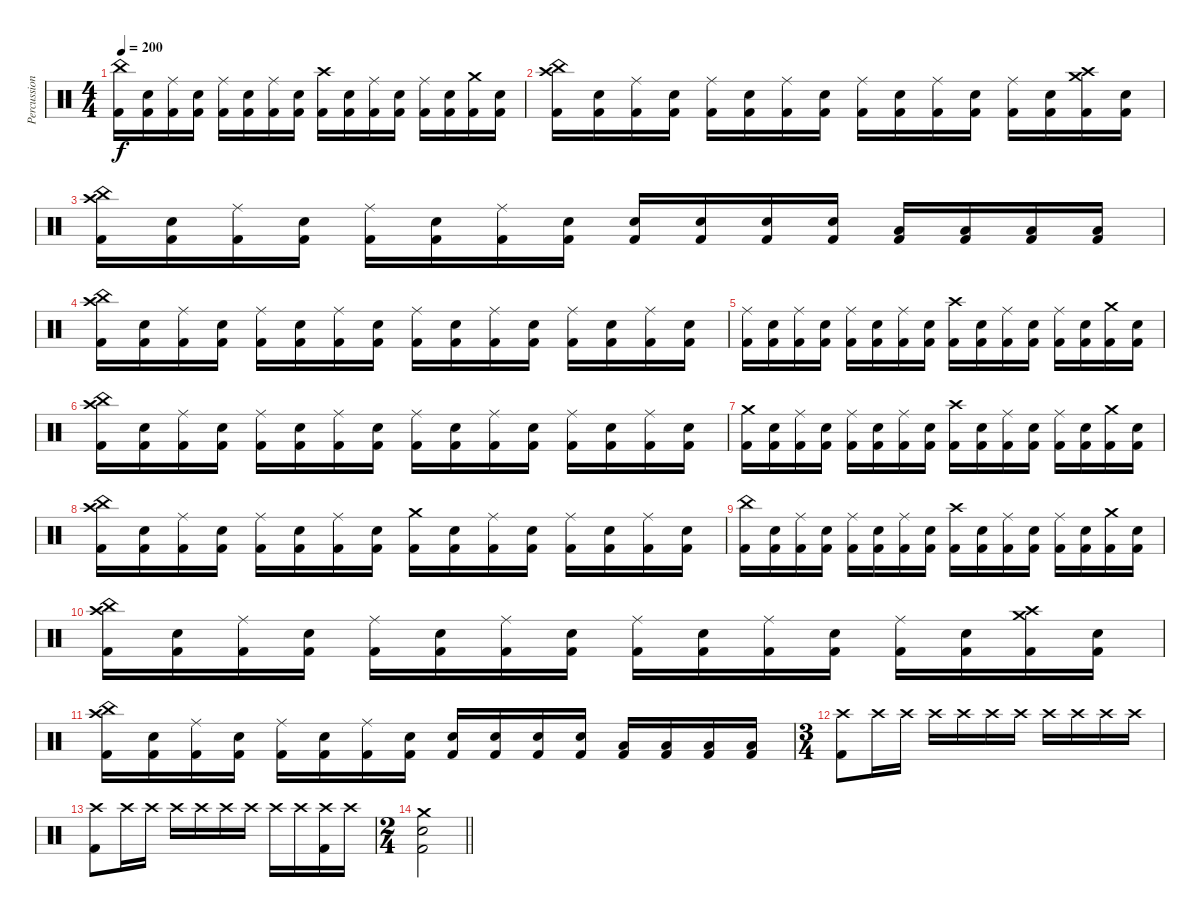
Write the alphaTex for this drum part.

\track ("Percussion" "Percussion") {instrument percussion}
\staff
\articulation defaults
\ts (4 4)
\tempo 200
\clef neutral
\ks c
("China (hit)" "Kick (hit) 2").16{dy f} ("Electric Snare (hit)" "Kick (hit) 2").16 ("Ride (middle)" "Kick (hit) 2").16 ("Electric Snare (hit)" "Kick (hit) 2").16 ("Ride (middle)" "Kick (hit) 2").16 ("Electric Snare (hit)" "Kick (hit) 2").16 ("Ride (middle)" "Kick (hit) 2").16 ("Electric Snare (hit)" "Kick (hit) 2").16 ("Crash high (hit)" "Kick (hit) 2").16 ("Electric Snare (hit)" "Kick (hit) 2").16 ("Ride (middle)" "Kick (hit) 2").16 ("Electric Snare (hit)" "Kick (hit) 2").16 ("Ride (middle)" "Kick (hit) 2").16 ("Electric Snare (hit)" "Kick (hit) 2").16 ("Crash medium (hit)" "Kick (hit) 2").16 ("Electric Snare (hit)" "Kick (hit) 2").16 |
("China (hit)" "Crash high (hit)" "Kick (hit) 2").16 ("Electric Snare (hit)" "Kick (hit) 2").16 ("Ride (middle)" "Kick (hit) 2").16 ("Electric Snare (hit)" "Kick (hit) 2").16 ("Ride (middle)" "Kick (hit) 2").16 ("Electric Snare (hit)" "Kick (hit) 2").16 ("Ride (middle)" "Kick (hit) 2").16 ("Electric Snare (hit)" "Kick (hit) 2").16 ("Ride (middle)" "Kick (hit) 2").16 ("Electric Snare (hit)" "Kick (hit) 2").16 ("Ride (middle)" "Kick (hit) 2").16 ("Electric Snare (hit)" "Kick (hit) 2").16 ("Ride (middle)" "Kick (hit) 2").16 ("Electric Snare (hit)" "Kick (hit) 2").16 ("Crash medium (hit)" "Crash high (hit)" "Kick (hit) 2").16 ("Electric Snare (hit)" "Kick (hit) 2").16 |
("China (hit)" "Crash high (hit)" "Kick (hit) 2").16 ("Electric Snare (hit)" "Kick (hit) 2").16 ("Ride (middle)" "Kick (hit) 2").16 ("Electric Snare (hit)" "Kick (hit) 2").16 ("Ride (middle)" "Kick (hit) 2").16 ("Electric Snare (hit)" "Kick (hit) 2").16 ("Ride (middle)" "Kick (hit) 2").16 ("Electric Snare (hit)" "Kick (hit) 2").16 ("Electric Snare (hit)" "Kick (hit) 2").16 ("Electric Snare (hit)" "Kick (hit) 2").16 ("Electric Snare (hit)" "Kick (hit) 2").16 ("Electric Snare (hit)" "Kick (hit) 2").16 ("Low Tom (hit)" "Kick (hit) 2").16 ("Low Tom (hit)" "Kick (hit) 2").16 ("Low Tom (hit)" "Kick (hit) 2").16 ("Low Tom (hit)" "Kick (hit) 2").16 |
("China (hit)" "Crash high (hit)" "Kick (hit) 2").16 ("Electric Snare (hit)" "Kick (hit) 2").16 ("Ride (middle)" "Kick (hit) 2").16 ("Electric Snare (hit)" "Kick (hit) 2").16 ("Ride (middle)" "Kick (hit) 2").16 ("Electric Snare (hit)" "Kick (hit) 2").16 ("Ride (middle)" "Kick (hit) 2").16 ("Electric Snare (hit)" "Kick (hit) 2").16 ("Ride (middle)" "Kick (hit) 2").16 ("Electric Snare (hit)" "Kick (hit) 2").16 ("Ride (middle)" "Kick (hit) 2").16 ("Electric Snare (hit)" "Kick (hit) 2").16 ("Ride (middle)" "Kick (hit) 2").16 ("Electric Snare (hit)" "Kick (hit) 2").16 ("Ride (middle)" "Kick (hit) 2").16 ("Electric Snare (hit)" "Kick (hit) 2").16 |
("Ride (middle)" "Kick (hit) 2").16 ("Electric Snare (hit)" "Kick (hit) 2").16 ("Ride (middle)" "Kick (hit) 2").16 ("Electric Snare (hit)" "Kick (hit) 2").16 ("Ride (middle)" "Kick (hit) 2").16 ("Electric Snare (hit)" "Kick (hit) 2").16 ("Ride (middle)" "Kick (hit) 2").16 ("Electric Snare (hit)" "Kick (hit) 2").16 ("Crash high (hit)" "Kick (hit) 2").16 ("Electric Snare (hit)" "Kick (hit) 2").16 ("Ride (middle)" "Kick (hit) 2").16 ("Electric Snare (hit)" "Kick (hit) 2").16 ("Ride (middle)" "Kick (hit) 2").16 ("Electric Snare (hit)" "Kick (hit) 2").16 ("Crash medium (hit)" "Kick (hit) 2").16 ("Electric Snare (hit)" "Kick (hit) 2").16 |
("China (hit)" "Crash high (hit)" "Kick (hit) 2").16 ("Electric Snare (hit)" "Kick (hit) 2").16 ("Ride (middle)" "Kick (hit) 2").16 ("Electric Snare (hit)" "Kick (hit) 2").16 ("Ride (middle)" "Kick (hit) 2").16 ("Electric Snare (hit)" "Kick (hit) 2").16 ("Ride (middle)" "Kick (hit) 2").16 ("Electric Snare (hit)" "Kick (hit) 2").16 ("Ride (middle)" "Kick (hit) 2").16 ("Electric Snare (hit)" "Kick (hit) 2").16 ("Ride (middle)" "Kick (hit) 2").16 ("Electric Snare (hit)" "Kick (hit) 2").16 ("Ride (middle)" "Kick (hit) 2").16 ("Electric Snare (hit)" "Kick (hit) 2").16 ("Ride (middle)" "Kick (hit) 2").16 ("Electric Snare (hit)" "Kick (hit) 2").16 |
("Crash medium (hit)" "Kick (hit) 2").16 ("Electric Snare (hit)" "Kick (hit) 2").16 ("Ride (middle)" "Kick (hit) 2").16 ("Electric Snare (hit)" "Kick (hit) 2").16 ("Ride (middle)" "Kick (hit) 2").16 ("Electric Snare (hit)" "Kick (hit) 2").16 ("Ride (middle)" "Kick (hit) 2").16 ("Electric Snare (hit)" "Kick (hit) 2").16 ("Crash high (hit)" "Kick (hit) 2").16 ("Electric Snare (hit)" "Kick (hit) 2").16 ("Ride (middle)" "Kick (hit) 2").16 ("Electric Snare (hit)" "Kick (hit) 2").16 ("Ride (middle)" "Kick (hit) 2").16 ("Electric Snare (hit)" "Kick (hit) 2").16 ("Crash medium (hit)" "Kick (hit) 2").16 ("Electric Snare (hit)" "Kick (hit) 2").16 |
("China (hit)" "Crash high (hit)" "Kick (hit) 2").16 ("Electric Snare (hit)" "Kick (hit) 2").16 ("Ride (middle)" "Kick (hit) 2").16 ("Electric Snare (hit)" "Kick (hit) 2").16 ("Ride (middle)" "Kick (hit) 2").16 ("Electric Snare (hit)" "Kick (hit) 2").16 ("Ride (middle)" "Kick (hit) 2").16 ("Electric Snare (hit)" "Kick (hit) 2").16 ("Crash medium (hit)" "Kick (hit) 2").16 ("Electric Snare (hit)" "Kick (hit) 2").16 ("Ride (middle)" "Kick (hit) 2").16 ("Electric Snare (hit)" "Kick (hit) 2").16 ("Ride (middle)" "Kick (hit) 2").16 ("Electric Snare (hit)" "Kick (hit) 2").16 ("Ride (middle)" "Kick (hit) 2").16 ("Electric Snare (hit)" "Kick (hit) 2").16 |
("China (hit)" "Kick (hit) 2").16 ("Electric Snare (hit)" "Kick (hit) 2").16 ("Ride (middle)" "Kick (hit) 2").16 ("Electric Snare (hit)" "Kick (hit) 2").16 ("Ride (middle)" "Kick (hit) 2").16 ("Electric Snare (hit)" "Kick (hit) 2").16 ("Ride (middle)" "Kick (hit) 2").16 ("Electric Snare (hit)" "Kick (hit) 2").16 ("Crash high (hit)" "Kick (hit) 2").16 ("Electric Snare (hit)" "Kick (hit) 2").16 ("Ride (middle)" "Kick (hit) 2").16 ("Electric Snare (hit)" "Kick (hit) 2").16 ("Ride (middle)" "Kick (hit) 2").16 ("Electric Snare (hit)" "Kick (hit) 2").16 ("Crash medium (hit)" "Kick (hit) 2").16 ("Electric Snare (hit)" "Kick (hit) 2").16 |
("China (hit)" "Crash high (hit)" "Kick (hit) 2").16 ("Electric Snare (hit)" "Kick (hit) 2").16 ("Ride (middle)" "Kick (hit) 2").16 ("Electric Snare (hit)" "Kick (hit) 2").16 ("Ride (middle)" "Kick (hit) 2").16 ("Electric Snare (hit)" "Kick (hit) 2").16 ("Ride (middle)" "Kick (hit) 2").16 ("Electric Snare (hit)" "Kick (hit) 2").16 ("Ride (middle)" "Kick (hit) 2").16 ("Electric Snare (hit)" "Kick (hit) 2").16 ("Ride (middle)" "Kick (hit) 2").16 ("Electric Snare (hit)" "Kick (hit) 2").16 ("Ride (middle)" "Kick (hit) 2").16 ("Electric Snare (hit)" "Kick (hit) 2").16 ("Crash medium (hit)" "Crash high (hit)" "Kick (hit) 2").16 ("Electric Snare (hit)" "Kick (hit) 2").16 |
("China (hit)" "Crash high (hit)" "Kick (hit) 2").16 ("Electric Snare (hit)" "Kick (hit) 2").16 ("Ride (middle)" "Kick (hit) 2").16 ("Electric Snare (hit)" "Kick (hit) 2").16 ("Ride (middle)" "Kick (hit) 2").16 ("Electric Snare (hit)" "Kick (hit) 2").16 ("Ride (middle)" "Kick (hit) 2").16 ("Electric Snare (hit)" "Kick (hit) 2").16 ("Electric Snare (hit)" "Kick (hit) 2").16 ("Electric Snare (hit)" "Kick (hit) 2").16 ("Electric Snare (hit)" "Kick (hit) 2").16 ("Electric Snare (hit)" "Kick (hit) 2").16 ("Low Tom (hit)" "Kick (hit) 2").16 ("Low Tom (hit)" "Kick (hit) 2").16 ("Low Tom (hit)" "Kick (hit) 2").16 ("Low Tom (hit)" "Kick (hit) 2").16 |
\ts (3 4)
("Crash high (hit)" "Kick (hit) 2").8 "Crash high (hit)".16 "Crash high (hit)".16 "Crash high (hit)".16 "Crash high (hit)".16 "Crash high (hit)".16 "Crash high (hit)".16 "Crash high (hit)".16 "Crash high (hit)".16 "Crash high (hit)".16 "Crash high (hit)".16 |
("Crash high (hit)" "Kick (hit) 2").8 "Crash high (hit)".16 "Crash high (hit)".16 "Crash high (hit)".16 "Crash high (hit)".16 "Crash high (hit)".16 "Crash high (hit)".16 "Crash high (hit)".16 "Crash high (hit)".16 ("Crash high (hit)" "Kick (hit) 2").16 "Crash high (hit)".16 |
\ts (2 4)
\barLineRight lightlight
("Crash medium (hit)" "Electric Snare (hit)" "Kick (hit) 2").2
